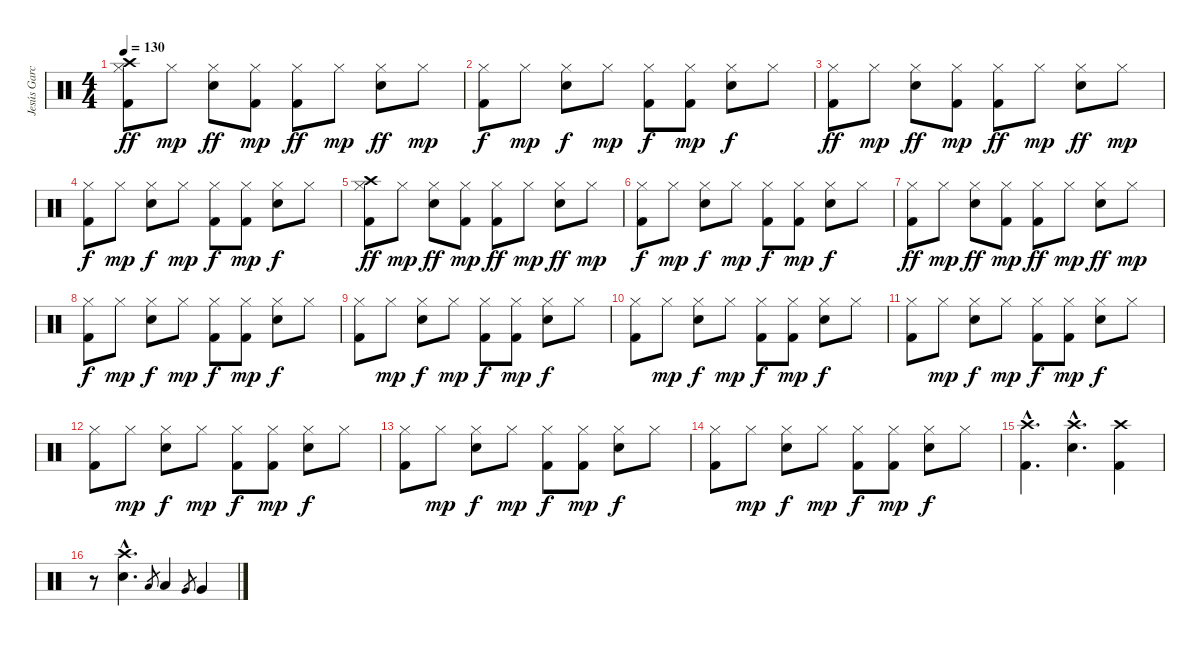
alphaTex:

\track ("Jesús García (batería)" "Jesús Garc") {instrument percussion}
\staff {score}
\articulation defaults
\ts (4 4)
\tempo 130
\clef neutral
\ks c
("Crash high (hit)" "Hi-Hat (closed)" "Kick (hit) 2").8{dy ff} "Hi-Hat (closed)".8{dy mp} ("Hi-Hat (closed)" "Electric Snare (hit)").8{dy ff} ("Hi-Hat (closed)" "Kick (hit) 2").8{dy mp} ("Hi-Hat (closed)" "Kick (hit) 2").8{dy ff} "Hi-Hat (closed)".8{dy mp} ("Hi-Hat (closed)" "Electric Snare (hit)").8{dy ff} "Hi-Hat (closed)".8{dy mp} |
("Hi-Hat (closed)" "Kick (hit) 2").8{dy f} "Hi-Hat (closed)".8{dy mp} ("Hi-Hat (closed)" "Electric Snare (hit)").8{dy f} "Hi-Hat (closed)".8{dy mp} ("Hi-Hat (closed)" "Kick (hit) 2").8{dy f} ("Hi-Hat (closed)" "Kick (hit) 2").8{dy mp} ("Hi-Hat (closed)" "Electric Snare (hit)").8{dy f} "Hi-Hat (closed)".8 |
("Hi-Hat (closed)" "Kick (hit) 2").8{dy ff} "Hi-Hat (closed)".8{dy mp} ("Hi-Hat (closed)" "Electric Snare (hit)").8{dy ff} ("Hi-Hat (closed)" "Kick (hit) 2").8{dy mp} ("Hi-Hat (closed)" "Kick (hit) 2").8{dy ff} "Hi-Hat (closed)".8{dy mp} ("Hi-Hat (closed)" "Electric Snare (hit)").8{dy ff} "Hi-Hat (closed)".8{dy mp} |
("Hi-Hat (closed)" "Kick (hit) 2").8{dy f} "Hi-Hat (closed)".8{dy mp} ("Hi-Hat (closed)" "Electric Snare (hit)").8{dy f} "Hi-Hat (closed)".8{dy mp} ("Hi-Hat (closed)" "Kick (hit) 2").8{dy f} ("Hi-Hat (closed)" "Kick (hit) 2").8{dy mp} ("Hi-Hat (closed)" "Electric Snare (hit)").8{dy f} "Hi-Hat (closed)".8 |
("Crash high (hit)" "Hi-Hat (closed)" "Kick (hit) 2").8{dy ff} "Hi-Hat (closed)".8{dy mp} ("Hi-Hat (closed)" "Electric Snare (hit)").8{dy ff} ("Hi-Hat (closed)" "Kick (hit) 2").8{dy mp} ("Hi-Hat (closed)" "Kick (hit) 2").8{dy ff} "Hi-Hat (closed)".8{dy mp} ("Hi-Hat (closed)" "Electric Snare (hit)").8{dy ff} "Hi-Hat (closed)".8{dy mp} |
("Hi-Hat (closed)" "Kick (hit) 2").8{dy f} "Hi-Hat (closed)".8{dy mp} ("Hi-Hat (closed)" "Electric Snare (hit)").8{dy f} "Hi-Hat (closed)".8{dy mp} ("Hi-Hat (closed)" "Kick (hit) 2").8{dy f} ("Hi-Hat (closed)" "Kick (hit) 2").8{dy mp} ("Hi-Hat (closed)" "Electric Snare (hit)").8{dy f} "Hi-Hat (closed)".8 |
("Hi-Hat (closed)" "Kick (hit) 2").8{dy ff} "Hi-Hat (closed)".8{dy mp} ("Hi-Hat (closed)" "Electric Snare (hit)").8{dy ff} ("Hi-Hat (closed)" "Kick (hit) 2").8{dy mp} ("Hi-Hat (closed)" "Kick (hit) 2").8{dy ff} "Hi-Hat (closed)".8{dy mp} ("Hi-Hat (closed)" "Electric Snare (hit)").8{dy ff} "Hi-Hat (closed)".8{dy mp} |
("Hi-Hat (closed)" "Kick (hit) 2").8{dy f} "Hi-Hat (closed)".8{dy mp} ("Hi-Hat (closed)" "Electric Snare (hit)").8{dy f} "Hi-Hat (closed)".8{dy mp} ("Hi-Hat (closed)" "Kick (hit) 2").8{dy f} ("Hi-Hat (closed)" "Kick (hit) 2").8{dy mp} ("Hi-Hat (closed)" "Electric Snare (hit)").8{dy f} "Hi-Hat (closed)".8 |
("Hi-Hat (closed)" "Kick (hit) 2").8 "Hi-Hat (closed)".8{dy mp} ("Hi-Hat (closed)" "Electric Snare (hit)").8{dy f} "Hi-Hat (closed)".8{dy mp} ("Hi-Hat (closed)" "Kick (hit) 2").8{dy f} ("Hi-Hat (closed)" "Kick (hit) 2").8{dy mp} ("Hi-Hat (closed)" "Electric Snare (hit)").8{dy f} "Hi-Hat (closed)".8 |
("Hi-Hat (closed)" "Kick (hit) 2").8 "Hi-Hat (closed)".8{dy mp} ("Hi-Hat (closed)" "Electric Snare (hit)").8{dy f} "Hi-Hat (closed)".8{dy mp} ("Hi-Hat (closed)" "Kick (hit) 2").8{dy f} ("Hi-Hat (closed)" "Kick (hit) 2").8{dy mp} ("Hi-Hat (closed)" "Electric Snare (hit)").8{dy f} "Hi-Hat (closed)".8 |
("Hi-Hat (closed)" "Kick (hit) 2").8 "Hi-Hat (closed)".8{dy mp} ("Hi-Hat (closed)" "Electric Snare (hit)").8{dy f} "Hi-Hat (closed)".8{dy mp} ("Hi-Hat (closed)" "Kick (hit) 2").8{dy f} ("Hi-Hat (closed)" "Kick (hit) 2").8{dy mp} ("Hi-Hat (closed)" "Electric Snare (hit)").8{dy f} "Hi-Hat (closed)".8 |
("Hi-Hat (closed)" "Kick (hit) 2").8 "Hi-Hat (closed)".8{dy mp} ("Hi-Hat (closed)" "Electric Snare (hit)").8{dy f} "Hi-Hat (closed)".8{dy mp} ("Hi-Hat (closed)" "Kick (hit) 2").8{dy f} ("Hi-Hat (closed)" "Kick (hit) 2").8{dy mp} ("Hi-Hat (closed)" "Electric Snare (hit)").8{dy f} "Hi-Hat (closed)".8 |
("Hi-Hat (closed)" "Kick (hit) 2").8 "Hi-Hat (closed)".8{dy mp} ("Hi-Hat (closed)" "Electric Snare (hit)").8{dy f} "Hi-Hat (closed)".8{dy mp} ("Hi-Hat (closed)" "Kick (hit) 2").8{dy f} ("Hi-Hat (closed)" "Kick (hit) 2").8{dy mp} ("Hi-Hat (closed)" "Electric Snare (hit)").8{dy f} "Hi-Hat (closed)".8 |
("Hi-Hat (closed)" "Kick (hit) 2").8 "Hi-Hat (closed)".8{dy mp} ("Hi-Hat (closed)" "Electric Snare (hit)").8{dy f} "Hi-Hat (closed)".8{dy mp} ("Hi-Hat (closed)" "Kick (hit) 2").8{dy f} ("Hi-Hat (closed)" "Kick (hit) 2").8{dy mp} ("Hi-Hat (closed)" "Electric Snare (hit)").8{dy f} "Hi-Hat (closed)".8 |
("Kick (hit) 2"{hac} "Crash high (hit)"{hac}).4{d} ("Electric Snare (hit)"{hac} "Crash high (hit)"{hac}).4{d} ("Kick (hit) 2" "Crash high (hit)").4 |
r.8 ("Electric Snare (hit)"{hac} "Crash high (hit)"{hac}).4{d} "Low Tom (hit)".8{gr} "Low Tom (hit)".4 "Very Low Tom (hit)".8{gr} "Very Low Tom (hit)".4
